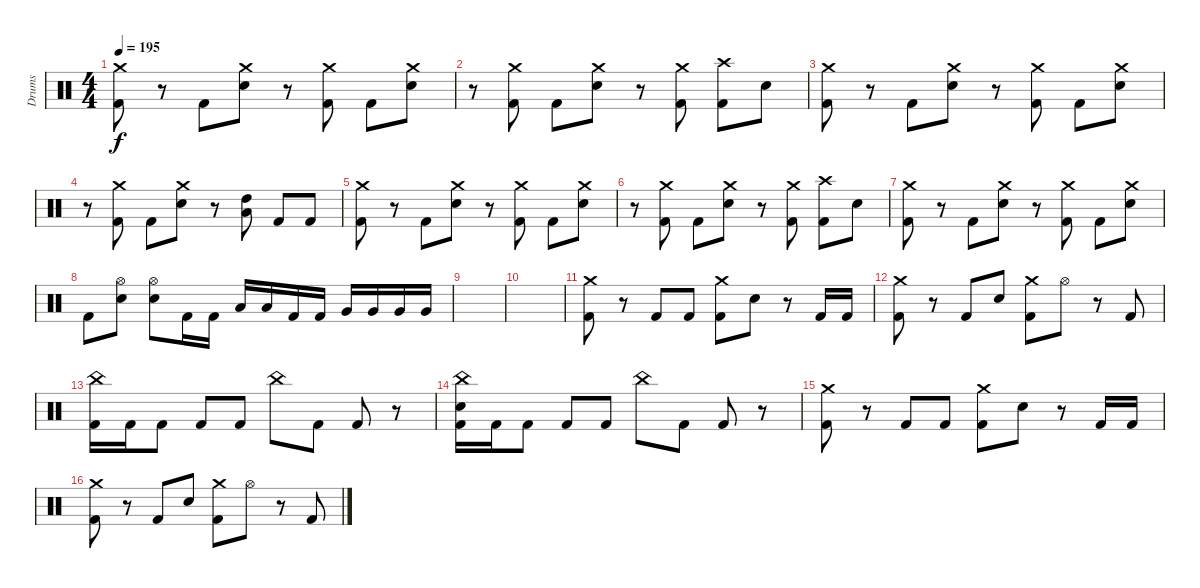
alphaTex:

\track ("Drums" "Drums") {instrument percussion}
\staff {score}
\articulation defaults
\ts (4 4)
\tempo 195
\clef neutral
\ks c
("Crash medium (hit)" "Kick (hit) 2").8{dy f} r.8 "Kick (hit) 2".8 ("Crash medium (hit)" "Electric Snare (hit)").8 r.8 ("Crash medium (hit)" "Kick (hit) 2").8 "Kick (hit) 2".8 ("Crash medium (hit)" "Electric Snare (hit)").8 |
r.8 ("Crash medium (hit)" "Kick (hit) 2").8 "Kick (hit) 2".8 ("Crash medium (hit)" "Electric Snare (hit)").8 r.8 ("Crash medium (hit)" "Kick (hit) 2").8 ("Crash high (hit)" "Kick (hit) 2").8 "Electric Snare (hit)".8 |
("Crash medium (hit)" "Kick (hit) 2").8 r.8 "Kick (hit) 2".8 ("Crash medium (hit)" "Electric Snare (hit)").8 r.8 ("Crash medium (hit)" "Kick (hit) 2").8 "Kick (hit) 2".8 ("Crash medium (hit)" "Electric Snare (hit)").8 |
r.8 ("Crash medium (hit)" "Kick (hit) 2").8 "Kick (hit) 2".8 ("Crash medium (hit)" "Electric Snare (hit)").8 r.8 ("High Tom (hit)" "Low Tom (hit)").8 "Kick (hit) 2".8 "Kick (hit) 2".8 |
("Crash medium (hit)" "Kick (hit) 2").8 r.8 "Kick (hit) 2".8 ("Crash medium (hit)" "Electric Snare (hit)").8 r.8 ("Crash medium (hit)" "Kick (hit) 2").8 "Kick (hit) 2".8 ("Crash medium (hit)" "Electric Snare (hit)").8 |
r.8 ("Crash medium (hit)" "Kick (hit) 2").8 "Kick (hit) 2".8 ("Crash medium (hit)" "Electric Snare (hit)").8 r.8 ("Crash medium (hit)" "Kick (hit) 2").8 ("Crash high (hit)" "Kick (hit) 2").8 "Electric Snare (hit)".8 |
("Crash medium (hit)" "Kick (hit) 2").8 r.8 "Kick (hit) 2".8 ("Crash medium (hit)" "Electric Snare (hit)").8 r.8 ("Crash medium (hit)" "Kick (hit) 2").8 "Kick (hit) 2".8 ("Crash medium (hit)" "Electric Snare (hit)").8 |
"Kick (hit) 2".8 ("Hi-Hat (open)" "Electric Snare (hit)").8 ("Electric Snare (hit)" "Hi-Hat (open)").8 "Kick (hit) 2".16 "Kick (hit) 2".16 "Low Tom (hit)".16 "Low Tom (hit)".16 "Kick (hit) 2".16 "Kick (hit) 2".16 "Very Low Tom (hit)".16 "Very Low Tom (hit)".16 "Very Low Tom (hit)".16 "Very Low Tom (hit)".16 |
|
|
("Crash medium (hit)" "Kick (hit) 2").8 r.8 "Kick (hit) 2".8 "Kick (hit) 2".8 ("Crash medium (hit)" "Kick (hit) 2").8 "Electric Snare (hit)".8 r.8 "Kick (hit) 2".16 "Kick (hit) 2".16 |
("Crash medium (hit)" "Kick (hit) 2").8 r.8 "Kick (hit) 2".8 "Electric Snare (hit)".8 ("Crash medium (hit)" "Kick (hit) 2").8 "Hi-Hat (open)".8 r.8 "Kick (hit) 2".8 |
("China (hit)" "Kick (hit) 2").16 "Kick (hit) 2".16 "Kick (hit) 2".8 "Kick (hit) 2".8 "Kick (hit) 2".8 "China (hit)".8 "Kick (hit) 2".8 "Kick (hit) 2".8 r.8 |
("China (hit)" "Electric Snare (hit)" "Kick (hit) 2").16 "Kick (hit) 2".16 "Kick (hit) 2".8 "Kick (hit) 2".8 "Kick (hit) 2".8 "China (hit)".8 "Kick (hit) 2".8 "Kick (hit) 2".8 r.8 |
("Crash medium (hit)" "Kick (hit) 2").8 r.8 "Kick (hit) 2".8 "Kick (hit) 2".8 ("Crash medium (hit)" "Kick (hit) 2").8 "Electric Snare (hit)".8 r.8 "Kick (hit) 2".16 "Kick (hit) 2".16 |
("Crash medium (hit)" "Kick (hit) 2").8 r.8 "Kick (hit) 2".8 "Electric Snare (hit)".8 ("Crash medium (hit)" "Kick (hit) 2").8 "Hi-Hat (open)".8 r.8 "Kick (hit) 2".8
